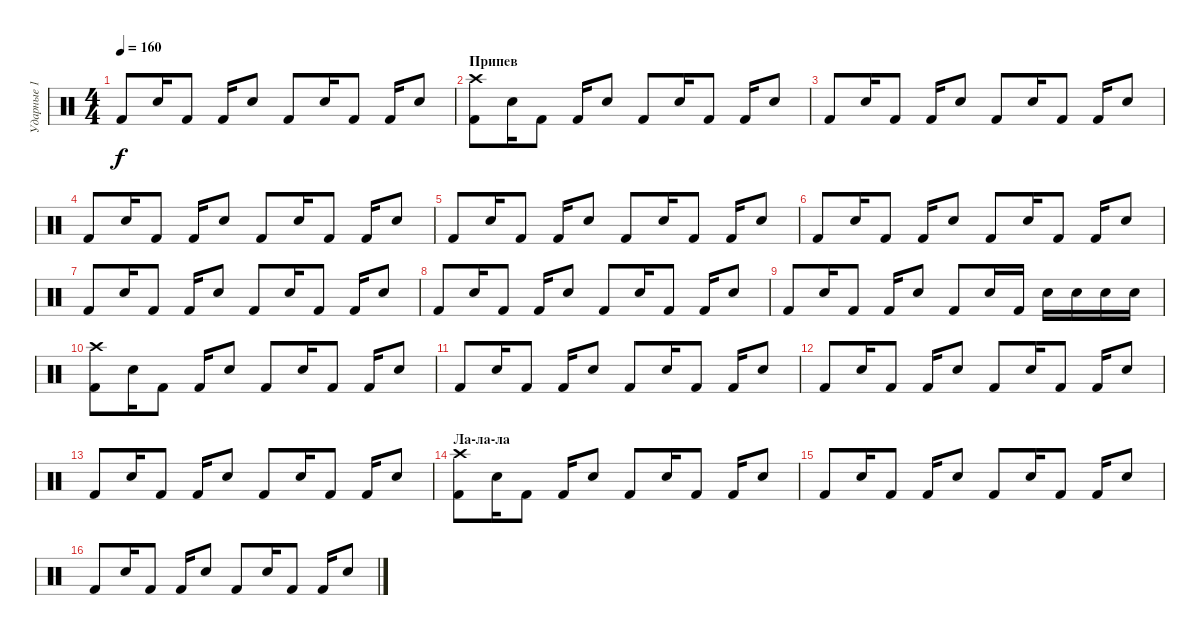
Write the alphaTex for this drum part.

\track ("Ударные 1" "Ударные 1") {instrument percussion}
\staff {score}
\articulation defaults
\ts (4 4)
\tempo 160
\clef neutral
\ks c "Kick (hit) 2".8{dy f} "Snare (hit) 2".16 "Kick (hit) 2".8 "Kick (hit) 2".16 "Snare (hit) 2".8 "Kick (hit) 2".8 "Snare (hit) 2".16 "Kick (hit) 2".8 "Kick (hit) 2".16 "Snare (hit) 2".8
|
\section ("" "Припев")
("Kick (hit) 2" "Crash high (hit)").8 "Snare (hit) 2".16 "Kick (hit) 2".8 "Kick (hit) 2".16 "Snare (hit) 2".8 "Kick (hit) 2".8 "Snare (hit) 2".16 "Kick (hit) 2".8 "Kick (hit) 2".16 "Snare (hit) 2".8 |
"Kick (hit) 2".8 "Snare (hit) 2".16 "Kick (hit) 2".8 "Kick (hit) 2".16 "Snare (hit) 2".8 "Kick (hit) 2".8 "Snare (hit) 2".16 "Kick (hit) 2".8 "Kick (hit) 2".16 "Snare (hit) 2".8 |
"Kick (hit) 2".8 "Snare (hit) 2".16 "Kick (hit) 2".8 "Kick (hit) 2".16 "Snare (hit) 2".8 "Kick (hit) 2".8 "Snare (hit) 2".16 "Kick (hit) 2".8 "Kick (hit) 2".16 "Snare (hit) 2".8 |
"Kick (hit) 2".8 "Snare (hit) 2".16 "Kick (hit) 2".8 "Kick (hit) 2".16 "Snare (hit) 2".8 "Kick (hit) 2".8 "Snare (hit) 2".16 "Kick (hit) 2".8 "Kick (hit) 2".16 "Snare (hit) 2".8 |
"Kick (hit) 2".8 "Snare (hit) 2".16 "Kick (hit) 2".8 "Kick (hit) 2".16 "Snare (hit) 2".8 "Kick (hit) 2".8 "Snare (hit) 2".16 "Kick (hit) 2".8 "Kick (hit) 2".16 "Snare (hit) 2".8 |
"Kick (hit) 2".8 "Snare (hit) 2".16 "Kick (hit) 2".8 "Kick (hit) 2".16 "Snare (hit) 2".8 "Kick (hit) 2".8 "Snare (hit) 2".16 "Kick (hit) 2".8 "Kick (hit) 2".16 "Snare (hit) 2".8 |
"Kick (hit) 2".8 "Snare (hit) 2".16 "Kick (hit) 2".8 "Kick (hit) 2".16 "Snare (hit) 2".8 "Kick (hit) 2".8 "Snare (hit) 2".16 "Kick (hit) 2".8 "Kick (hit) 2".16 "Snare (hit) 2".8 |
"Kick (hit) 2".8 "Snare (hit) 2".16 "Kick (hit) 2".8 "Kick (hit) 2".16 "Snare (hit) 2".8 "Kick (hit) 2".8 "Snare (hit) 2".16 "Kick (hit) 2".16 "Snare (hit) 2".16 "Snare (hit) 2".16 "Snare (hit) 2".16 "Snare (hit) 2".16 |
("Kick (hit) 2" "Crash high (hit)").8 "Snare (hit) 2".16 "Kick (hit) 2".8 "Kick (hit) 2".16 "Snare (hit) 2".8 "Kick (hit) 2".8 "Snare (hit) 2".16 "Kick (hit) 2".8 "Kick (hit) 2".16 "Snare (hit) 2".8 |
"Kick (hit) 2".8 "Snare (hit) 2".16 "Kick (hit) 2".8 "Kick (hit) 2".16 "Snare (hit) 2".8 "Kick (hit) 2".8 "Snare (hit) 2".16 "Kick (hit) 2".8 "Kick (hit) 2".16 "Snare (hit) 2".8 |
"Kick (hit) 2".8 "Snare (hit) 2".16 "Kick (hit) 2".8 "Kick (hit) 2".16 "Snare (hit) 2".8 "Kick (hit) 2".8 "Snare (hit) 2".16 "Kick (hit) 2".8 "Kick (hit) 2".16 "Snare (hit) 2".8 |
"Kick (hit) 2".8 "Snare (hit) 2".16 "Kick (hit) 2".8 "Kick (hit) 2".16 "Snare (hit) 2".8 "Kick (hit) 2".8 "Snare (hit) 2".16 "Kick (hit) 2".8 "Kick (hit) 2".16 "Snare (hit) 2".8 |
\section ("" "Ла-ла-ла")
("Kick (hit) 2" "Crash high (hit)").8 "Snare (hit) 2".16 "Kick (hit) 2".8 "Kick (hit) 2".16 "Snare (hit) 2".8 "Kick (hit) 2".8 "Snare (hit) 2".16 "Kick (hit) 2".8 "Kick (hit) 2".16 "Snare (hit) 2".8 |
"Kick (hit) 2".8 "Snare (hit) 2".16 "Kick (hit) 2".8 "Kick (hit) 2".16 "Snare (hit) 2".8 "Kick (hit) 2".8 "Snare (hit) 2".16 "Kick (hit) 2".8 "Kick (hit) 2".16 "Snare (hit) 2".8 |
"Kick (hit) 2".8 "Snare (hit) 2".16 "Kick (hit) 2".8 "Kick (hit) 2".16 "Snare (hit) 2".8 "Kick (hit) 2".8 "Snare (hit) 2".16 "Kick (hit) 2".8 "Kick (hit) 2".16 "Snare (hit) 2".8
